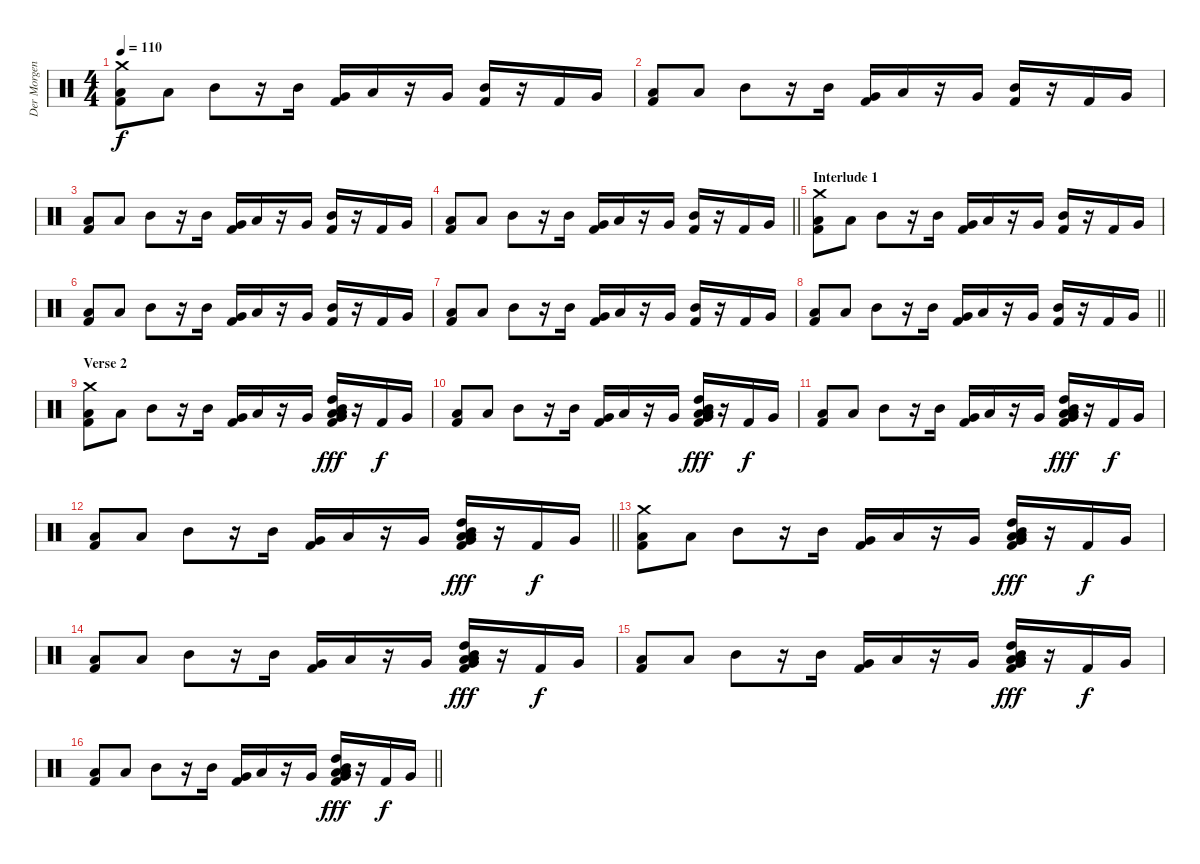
\track ("Der Morgenstern" "Der Morgen") {instrument percussion}
\staff {score}
\articulation defaults
\ts (4 4)
\tempo 110
\clef neutral
\ks c
("Low Floor Tom (hit)" "Kick (hit) 2" "Crash medium (hit)").8{dy f} "Low Floor Tom (hit)".8 "Mid Tom (hit)".8 r.16 "Mid Tom (hit)".16 ("Very Low Tom (hit)" "Kick (hit) 2").16 "Low Tom (hit)".16 r.16 "Very Low Tom (hit)".16 ("Mid Tom (hit)" "Kick (hit) 2").16 r.16 "Kick (hit) 2".16 "Very Low Tom (hit)".16 |
("Low Floor Tom (hit)" "Kick (hit) 2").8 "Low Floor Tom (hit)".8 "Mid Tom (hit)".8 r.16 "Mid Tom (hit)".16 ("Very Low Tom (hit)" "Kick (hit) 2").16 "Low Tom (hit)".16 r.16 "Very Low Tom (hit)".16 ("Mid Tom (hit)" "Kick (hit) 2").16 r.16 "Kick (hit) 2".16 "Very Low Tom (hit)".16 |
("Low Floor Tom (hit)" "Kick (hit) 2").8 "Low Floor Tom (hit)".8 "Mid Tom (hit)".8 r.16 "Mid Tom (hit)".16 ("Very Low Tom (hit)" "Kick (hit) 2").16 "Low Tom (hit)".16 r.16 "Very Low Tom (hit)".16 ("Mid Tom (hit)" "Kick (hit) 2").16 r.16 "Kick (hit) 2".16 "Very Low Tom (hit)".16 |
\barLineRight lightlight
("Low Floor Tom (hit)" "Kick (hit) 2").8 "Low Floor Tom (hit)".8 "Mid Tom (hit)".8 r.16 "Mid Tom (hit)".16 ("Very Low Tom (hit)" "Kick (hit) 2").16 "Low Tom (hit)".16 r.16 "Very Low Tom (hit)".16 ("Mid Tom (hit)" "Kick (hit) 2").16 r.16 "Kick (hit) 2".16 "Very Low Tom (hit)".16 |
\section ("" "Interlude 1")
("Low Floor Tom (hit)" "Kick (hit) 2" "Crash medium (hit)").8 "Low Floor Tom (hit)".8 "Mid Tom (hit)".8 r.16 "Mid Tom (hit)".16 ("Very Low Tom (hit)" "Kick (hit) 2").16 "Low Tom (hit)".16 r.16 "Very Low Tom (hit)".16 ("Mid Tom (hit)" "Kick (hit) 2").16 r.16 "Kick (hit) 2".16 "Very Low Tom (hit)".16 |
("Low Floor Tom (hit)" "Kick (hit) 2").8 "Low Floor Tom (hit)".8 "Mid Tom (hit)".8 r.16 "Mid Tom (hit)".16 ("Very Low Tom (hit)" "Kick (hit) 2").16 "Low Tom (hit)".16 r.16 "Very Low Tom (hit)".16 ("Mid Tom (hit)" "Kick (hit) 2").16 r.16 "Kick (hit) 2".16 "Very Low Tom (hit)".16 |
("Low Floor Tom (hit)" "Kick (hit) 2").8 "Low Floor Tom (hit)".8 "Mid Tom (hit)".8 r.16 "Mid Tom (hit)".16 ("Very Low Tom (hit)" "Kick (hit) 2").16 "Low Tom (hit)".16 r.16 "Very Low Tom (hit)".16 ("Mid Tom (hit)" "Kick (hit) 2").16 r.16 "Kick (hit) 2".16 "Very Low Tom (hit)".16 |
\barLineRight lightlight
("Low Floor Tom (hit)" "Kick (hit) 2").8 "Low Floor Tom (hit)".8 "Mid Tom (hit)".8 r.16 "Mid Tom (hit)".16 ("Very Low Tom (hit)" "Kick (hit) 2").16 "Low Tom (hit)".16 r.16 "Very Low Tom (hit)".16 ("Mid Tom (hit)" "Kick (hit) 2").16 r.16 "Kick (hit) 2".16 "Very Low Tom (hit)".16 |
\section ("" "Verse 2")
("Low Floor Tom (hit)" "Kick (hit) 2" "Crash medium (hit)").8 "Low Floor Tom (hit)".8 "Mid Tom (hit)".8 r.16 "Mid Tom (hit)".16 ("Very Low Tom (hit)" "Kick (hit) 2").16 "Low Tom (hit)".16 r.16 "Very Low Tom (hit)".16 ("Low Tom (hit)" "Very Low Tom (hit)" "Mid Tom (hit)" "Low Floor Tom (hit)" "Kick (hit) 2" "High Tom (hit)").16{dy fff} r.16 "Kick (hit) 2".16{dy f} "Very Low Tom (hit)".16 |
("Low Floor Tom (hit)" "Kick (hit) 2").8 "Low Floor Tom (hit)".8 "Mid Tom (hit)".8 r.16 "Mid Tom (hit)".16 ("Very Low Tom (hit)" "Kick (hit) 2").16 "Low Tom (hit)".16 r.16 "Very Low Tom (hit)".16 ("Low Tom (hit)" "Very Low Tom (hit)" "Mid Tom (hit)" "Low Floor Tom (hit)" "Kick (hit) 2" "High Tom (hit)").16{dy fff} r.16 "Kick (hit) 2".16{dy f} "Very Low Tom (hit)".16 |
("Low Floor Tom (hit)" "Kick (hit) 2").8 "Low Floor Tom (hit)".8 "Mid Tom (hit)".8 r.16 "Mid Tom (hit)".16 ("Very Low Tom (hit)" "Kick (hit) 2").16 "Low Tom (hit)".16 r.16 "Very Low Tom (hit)".16 ("Low Tom (hit)" "Very Low Tom (hit)" "Mid Tom (hit)" "Low Floor Tom (hit)" "Kick (hit) 2" "High Tom (hit)").16{dy fff} r.16 "Kick (hit) 2".16{dy f} "Very Low Tom (hit)".16 |
\barLineRight lightlight
("Low Floor Tom (hit)" "Kick (hit) 2").8 "Low Floor Tom (hit)".8 "Mid Tom (hit)".8 r.16 "Mid Tom (hit)".16 ("Very Low Tom (hit)" "Kick (hit) 2").16 "Low Tom (hit)".16 r.16 "Very Low Tom (hit)".16 ("Low Tom (hit)" "Very Low Tom (hit)" "Mid Tom (hit)" "Low Floor Tom (hit)" "Kick (hit) 2" "High Tom (hit)").16{dy fff} r.16 "Kick (hit) 2".16{dy f} "Very Low Tom (hit)".16 |
("Low Floor Tom (hit)" "Kick (hit) 2" "Crash medium (hit)").8 "Low Floor Tom (hit)".8 "Mid Tom (hit)".8 r.16 "Mid Tom (hit)".16 ("Very Low Tom (hit)" "Kick (hit) 2").16 "Low Tom (hit)".16 r.16 "Very Low Tom (hit)".16 ("Low Tom (hit)" "Very Low Tom (hit)" "Mid Tom (hit)" "Low Floor Tom (hit)" "Kick (hit) 2" "High Tom (hit)").16{dy fff} r.16 "Kick (hit) 2".16{dy f} "Very Low Tom (hit)".16 |
("Low Floor Tom (hit)" "Kick (hit) 2").8 "Low Floor Tom (hit)".8 "Mid Tom (hit)".8 r.16 "Mid Tom (hit)".16 ("Very Low Tom (hit)" "Kick (hit) 2").16 "Low Tom (hit)".16 r.16 "Very Low Tom (hit)".16 ("Low Tom (hit)" "Very Low Tom (hit)" "Mid Tom (hit)" "Low Floor Tom (hit)" "Kick (hit) 2" "High Tom (hit)").16{dy fff} r.16 "Kick (hit) 2".16{dy f} "Very Low Tom (hit)".16 |
("Low Floor Tom (hit)" "Kick (hit) 2").8 "Low Floor Tom (hit)".8 "Mid Tom (hit)".8 r.16 "Mid Tom (hit)".16 ("Very Low Tom (hit)" "Kick (hit) 2").16 "Low Tom (hit)".16 r.16 "Very Low Tom (hit)".16 ("Low Tom (hit)" "Very Low Tom (hit)" "Mid Tom (hit)" "Low Floor Tom (hit)" "Kick (hit) 2" "High Tom (hit)").16{dy fff} r.16 "Kick (hit) 2".16{dy f} "Very Low Tom (hit)".16 |
\barLineRight lightlight
("Low Floor Tom (hit)" "Kick (hit) 2").8 "Low Floor Tom (hit)".8 "Mid Tom (hit)".8 r.16 "Mid Tom (hit)".16 ("Very Low Tom (hit)" "Kick (hit) 2").16 "Low Tom (hit)".16 r.16 "Very Low Tom (hit)".16 ("Low Tom (hit)" "Very Low Tom (hit)" "Mid Tom (hit)" "Low Floor Tom (hit)" "Kick (hit) 2" "High Tom (hit)").16{dy fff} r.16 "Kick (hit) 2".16{dy f} "Very Low Tom (hit)".16
